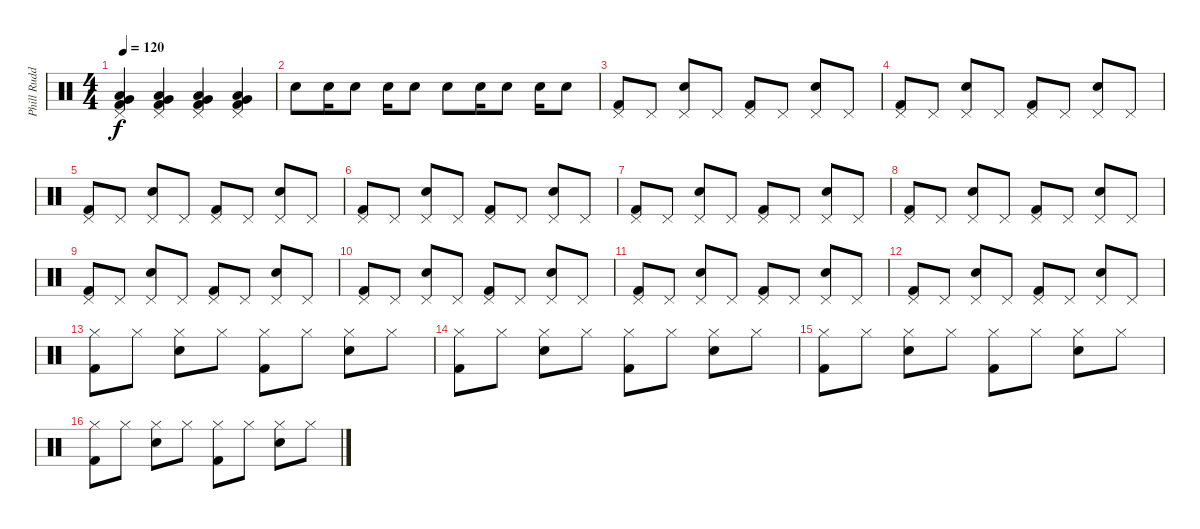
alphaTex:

\track ("Phill Rudd" "Phill Rudd") {instrument percussion}
\staff {score}
\articulation defaults
\ts (4 4)
\tempo 120
\clef neutral
\ks c
("Kick (hit) 2" "Very Low Tom (hit)" "Low Floor Tom (hit)" "Pedal Hi-Hat (hit)").4{dy f} ("Kick (hit) 2" "Very Low Tom (hit)" "Low Floor Tom (hit)" "Pedal Hi-Hat (hit)").4 ("Kick (hit) 2" "Very Low Tom (hit)" "Low Floor Tom (hit)" "Pedal Hi-Hat (hit)").4 ("Kick (hit) 2" "Very Low Tom (hit)" "Low Floor Tom (hit)" "Pedal Hi-Hat (hit)").4 |
"Electric Snare (hit)".8 "Electric Snare (hit)".16 "Electric Snare (hit)".8 "Electric Snare (hit)".16 "Electric Snare (hit)".8 "Electric Snare (hit)".8 "Electric Snare (hit)".16 "Electric Snare (hit)".8 "Electric Snare (hit)".16 "Electric Snare (hit)".8 |
("Pedal Hi-Hat (hit)" "Kick (hit) 2").8 "Pedal Hi-Hat (hit)".8 ("Pedal Hi-Hat (hit)" "Electric Snare (hit)").8 "Pedal Hi-Hat (hit)".8 ("Pedal Hi-Hat (hit)" "Kick (hit) 2").8 "Pedal Hi-Hat (hit)".8 ("Pedal Hi-Hat (hit)" "Electric Snare (hit)").8 "Pedal Hi-Hat (hit)".8 |
("Pedal Hi-Hat (hit)" "Kick (hit) 2").8 "Pedal Hi-Hat (hit)".8 ("Pedal Hi-Hat (hit)" "Electric Snare (hit)").8 "Pedal Hi-Hat (hit)".8 ("Pedal Hi-Hat (hit)" "Kick (hit) 2").8 "Pedal Hi-Hat (hit)".8 ("Pedal Hi-Hat (hit)" "Electric Snare (hit)").8 "Pedal Hi-Hat (hit)".8 |
("Pedal Hi-Hat (hit)" "Kick (hit) 2").8 "Pedal Hi-Hat (hit)".8 ("Pedal Hi-Hat (hit)" "Electric Snare (hit)").8 "Pedal Hi-Hat (hit)".8 ("Pedal Hi-Hat (hit)" "Kick (hit) 2").8 "Pedal Hi-Hat (hit)".8 ("Pedal Hi-Hat (hit)" "Electric Snare (hit)").8 "Pedal Hi-Hat (hit)".8 |
("Pedal Hi-Hat (hit)" "Kick (hit) 2").8 "Pedal Hi-Hat (hit)".8 ("Pedal Hi-Hat (hit)" "Electric Snare (hit)").8 "Pedal Hi-Hat (hit)".8 ("Pedal Hi-Hat (hit)" "Kick (hit) 2").8 "Pedal Hi-Hat (hit)".8 ("Pedal Hi-Hat (hit)" "Electric Snare (hit)").8 "Pedal Hi-Hat (hit)".8 |
("Pedal Hi-Hat (hit)" "Kick (hit) 2").8 "Pedal Hi-Hat (hit)".8 ("Pedal Hi-Hat (hit)" "Electric Snare (hit)").8 "Pedal Hi-Hat (hit)".8 ("Pedal Hi-Hat (hit)" "Kick (hit) 2").8 "Pedal Hi-Hat (hit)".8 ("Pedal Hi-Hat (hit)" "Electric Snare (hit)").8 "Pedal Hi-Hat (hit)".8 |
("Pedal Hi-Hat (hit)" "Kick (hit) 2").8 "Pedal Hi-Hat (hit)".8 ("Pedal Hi-Hat (hit)" "Electric Snare (hit)").8 "Pedal Hi-Hat (hit)".8 ("Pedal Hi-Hat (hit)" "Kick (hit) 2").8 "Pedal Hi-Hat (hit)".8 ("Pedal Hi-Hat (hit)" "Electric Snare (hit)").8 "Pedal Hi-Hat (hit)".8 |
("Pedal Hi-Hat (hit)" "Kick (hit) 2").8 "Pedal Hi-Hat (hit)".8 ("Pedal Hi-Hat (hit)" "Electric Snare (hit)").8 "Pedal Hi-Hat (hit)".8 ("Pedal Hi-Hat (hit)" "Kick (hit) 2").8 "Pedal Hi-Hat (hit)".8 ("Pedal Hi-Hat (hit)" "Electric Snare (hit)").8 "Pedal Hi-Hat (hit)".8 |
("Pedal Hi-Hat (hit)" "Kick (hit) 2").8 "Pedal Hi-Hat (hit)".8 ("Pedal Hi-Hat (hit)" "Electric Snare (hit)").8 "Pedal Hi-Hat (hit)".8 ("Pedal Hi-Hat (hit)" "Kick (hit) 2").8 "Pedal Hi-Hat (hit)".8 ("Pedal Hi-Hat (hit)" "Electric Snare (hit)").8 "Pedal Hi-Hat (hit)".8 |
("Pedal Hi-Hat (hit)" "Kick (hit) 2").8 "Pedal Hi-Hat (hit)".8 ("Pedal Hi-Hat (hit)" "Electric Snare (hit)").8 "Pedal Hi-Hat (hit)".8 ("Pedal Hi-Hat (hit)" "Kick (hit) 2").8 "Pedal Hi-Hat (hit)".8 ("Pedal Hi-Hat (hit)" "Electric Snare (hit)").8 "Pedal Hi-Hat (hit)".8 |
("Pedal Hi-Hat (hit)" "Kick (hit) 2").8 "Pedal Hi-Hat (hit)".8 ("Pedal Hi-Hat (hit)" "Electric Snare (hit)").8 "Pedal Hi-Hat (hit)".8 ("Pedal Hi-Hat (hit)" "Kick (hit) 2").8 "Pedal Hi-Hat (hit)".8 ("Pedal Hi-Hat (hit)" "Electric Snare (hit)").8 "Pedal Hi-Hat (hit)".8 |
("Hi-Hat (closed)" "Kick (hit) 2").8 "Hi-Hat (closed)".8 ("Hi-Hat (closed)" "Electric Snare (hit)").8 "Hi-Hat (closed)".8 ("Hi-Hat (closed)" "Kick (hit) 2").8 "Hi-Hat (closed)".8 ("Hi-Hat (closed)" "Electric Snare (hit)").8 "Hi-Hat (closed)".8 |
("Hi-Hat (closed)" "Kick (hit) 2").8 "Hi-Hat (closed)".8 ("Hi-Hat (closed)" "Electric Snare (hit)").8 "Hi-Hat (closed)".8 ("Hi-Hat (closed)" "Kick (hit) 2").8 "Hi-Hat (closed)".8 ("Hi-Hat (closed)" "Electric Snare (hit)").8 "Hi-Hat (closed)".8 |
("Hi-Hat (closed)" "Kick (hit) 2").8 "Hi-Hat (closed)".8 ("Hi-Hat (closed)" "Electric Snare (hit)").8 "Hi-Hat (closed)".8 ("Hi-Hat (closed)" "Kick (hit) 2").8 "Hi-Hat (closed)".8 ("Hi-Hat (closed)" "Electric Snare (hit)").8 "Hi-Hat (closed)".8 |
("Hi-Hat (closed)" "Kick (hit) 2").8 "Hi-Hat (closed)".8 ("Hi-Hat (closed)" "Electric Snare (hit)").8 "Hi-Hat (closed)".8 ("Hi-Hat (closed)" "Kick (hit) 2").8 "Hi-Hat (closed)".8 ("Hi-Hat (closed)" "Electric Snare (hit)").8 "Hi-Hat (closed)".8
